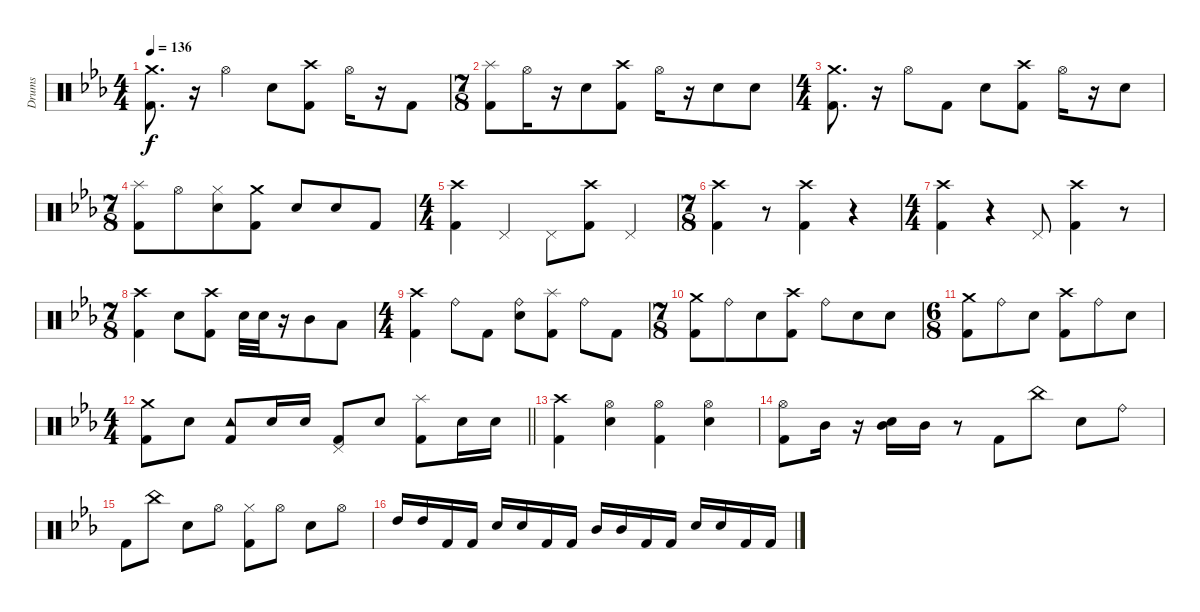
\track ("Drums" "Drums") {instrument percussion}
\staff {score}
\articulation defaults
\ts (4 4)
\tempo 136
\clef neutral
\ks cminor
("Kick (hit) 2" "Crash medium (hit)").8{d dy f} r.16 "Hi-Hat (open)".4 "Electric Snare (hit)".8 ("Kick (hit) 2" "Crash high (hit)").8 "Hi-Hat (open)".16 r.16 "Kick (hit) 2".8 |
\ts (7 8)
("Kick (hit) 2" "Splash (hit)").8 "Hi-Hat (open)".16 r.16 "Electric Snare (hit)".8 ("Kick (hit) 2" "Crash high (hit)").8 "Hi-Hat (open)".16 r.16 "Electric Snare (hit)".8 "Electric Snare (hit)".8 |
\ts (4 4)
("Kick (hit) 2" "Crash medium (hit)").8{d} r.16 "Hi-Hat (open)".8 "Kick (hit) 2".8 "Electric Snare (hit)".8 ("Kick (hit) 2" "Crash high (hit)").8 "Hi-Hat (open)".16 r.16 "Electric Snare (hit)".8 |
\ts (7 8)
("Kick (hit) 2" "Splash (hit)").8 "Hi-Hat (open)".8 ("Hi-Hat (closed)" "Electric Snare (hit)").8 ("Kick (hit) 2" "Crash medium (hit)").8 "Electric Snare (hit)".8 "Electric Snare (hit)".8 "Kick (hit) 2".8 |
\ts (4 4)
("Kick (hit) 2" "Crash high (hit)").4 "Pedal Hi-Hat (hit)".4 "Pedal Hi-Hat (hit)".8 ("Crash high (hit)" "Kick (hit) 2").8 "Pedal Hi-Hat (hit)".4 |
\ts (7 8)
("Crash high (hit)" "Kick (hit) 2").4 r.8 ("Crash high (hit)" "Kick (hit) 2").4 r.4 |
\ts (4 4)
("Crash high (hit)" "Kick (hit) 2").4 r.4 "Pedal Hi-Hat (hit)".8 ("Crash high (hit)" "Kick (hit) 2").4 r.8 |
\ts (7 8)
("Crash high (hit)" "Kick (hit) 2").4 "Electric Snare (hit)".8 ("Kick (hit) 2" "Crash high (hit)").8 "Electric Snare (hit)".32 "Electric Snare (hit)".32 r.16 "Mid Tom (hit)".8 "Low Tom (hit)".8 |
\ts (4 4)
("Kick (hit) 2" "Crash high (hit)").4 "Ride (bell)".8 "Kick (hit) 2".8 ("Electric Snare (hit)" "Ride (bell)").8 ("Kick (hit) 2" "Splash (hit)").8 "Ride (bell)".8 "Kick (hit) 2".8 |
\ts (7 8)
("Kick (hit) 2" "Crash medium (hit)").8 "Ride (bell)".8 "Electric Snare (hit)".8 ("Kick (hit) 2" "Crash high (hit)").8 "Ride (bell)".8 "Electric Snare (hit)".8 "Electric Snare (hit)".8 |
\ts (6 8)
("Crash medium (hit)" "Kick (hit) 2").8 "Ride (bell)".8 "Electric Snare (hit)".8 ("Kick (hit) 2" "Crash high (hit)").8 "Ride (bell)".8 "Electric Snare (hit)".8 |
\ts (4 4)
\barLineRight lightlight
("Kick (hit) 2" "Crash medium (hit)").8 "Electric Snare (hit)".8 ("Kick (hit) 2" "Tambourine (hit)").8 "Electric Snare (hit)".16 "Electric Snare (hit)".16 ("Kick (hit) 2" "Pedal Hi-Hat (hit)").8 "Electric Snare (hit)".8 ("Kick (hit) 2" "Splash (hit)").8 "Electric Snare (hit)".16 "Electric Snare (hit)".16 |
("Kick (hit) 2" "Crash high (hit)").4 ("Electric Snare (hit)" "Hi-Hat (open)").4 ("Kick (hit) 2" "Hi-Hat (open)").4 ("Electric Snare (hit)" "Hi-Hat (open)").4 |
("Kick (hit) 2" "Hi-Hat (open)").8 "Mid Tom (hit)".16 r.16 ("Electric Snare (hit)" "Mid Tom (hit)").16 "Mid Tom (hit)".16 r.8 "Kick (hit) 2".8 "China (hit)".8 "Electric Snare (hit)".8 "Ride (bell)".8 |
"Kick (hit) 2".8 "China (hit)".8 "Electric Snare (hit)".8 "Hi-Hat (open)".8 ("Kick (hit) 2" "Hi-Hat (closed)").8 "Hi-Hat (open)".8 "Electric Snare (hit)".8 "Hi-Hat (open)".8 |
"High Tom (hit)".16 "High Tom (hit)".16 "Kick (hit) 2".16 "Kick (hit) 2".16 "Electric Snare (hit)".16 "Electric Snare (hit)".16 "Kick (hit) 2".16 "Kick (hit) 2".16 "Mid Tom (hit)".16 "Mid Tom (hit)".16 "Kick (hit) 2".16 "Kick (hit) 2".16 "Electric Snare (hit)".16 "Electric Snare (hit)".16 "Kick (hit) 2".16 "Kick (hit) 2".16
